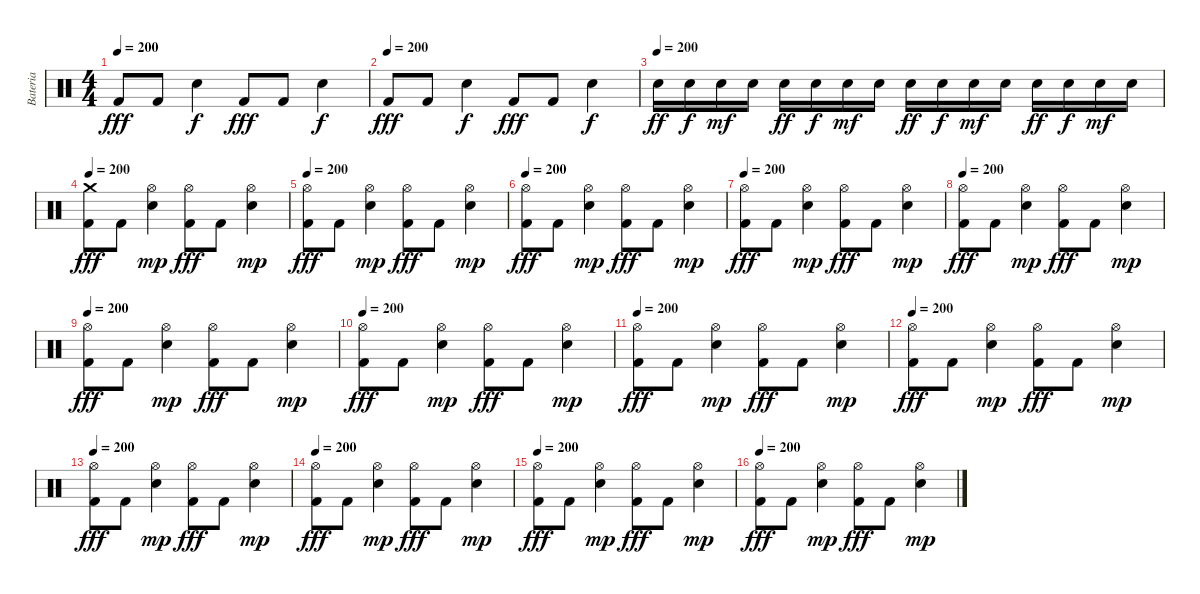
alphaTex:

\track ("Bateria" "Bateria") {instrument percussion}
\staff {score}
\articulation defaults
\ts (4 4)
\tempo 200
\clef neutral
\ks c "Kick (hit) 2".8{dy fff} "Kick (hit) 2".8 "Electric Snare (hit)".4{dy f} "Kick (hit) 2".8{dy fff} "Kick (hit) 2".8 "Electric Snare (hit)".4{dy f}
|
\tempo (200)
"Kick (hit) 2".8{dy fff} "Kick (hit) 2".8 "Electric Snare (hit)".4{dy f} "Kick (hit) 2".8{dy fff} "Kick (hit) 2".8 "Electric Snare (hit)".4{dy f} |
\tempo (200)
"Electric Snare (hit)".16{dy ff} "Electric Snare (hit)".16{dy f} "Electric Snare (hit)".16{dy mf} "Electric Snare (hit)".16 "Electric Snare (hit)".16{dy ff} "Electric Snare (hit)".16{dy f} "Electric Snare (hit)".16{dy mf} "Electric Snare (hit)".16 "Electric Snare (hit)".16{dy ff} "Electric Snare (hit)".16{dy f} "Electric Snare (hit)".16{dy mf} "Electric Snare (hit)".16 "Electric Snare (hit)".16{dy ff} "Electric Snare (hit)".16{dy f} "Electric Snare (hit)".16{dy mf} "Electric Snare (hit)".16 |
\tempo 200
("Crash medium (hit)" "Kick (hit) 2").8{dy fff} "Kick (hit) 2".8 ("Hi-Hat (open)" "Electric Snare (hit)").4{dy mp} ("Hi-Hat (open)" "Kick (hit) 2").8{dy fff} "Kick (hit) 2".8 ("Hi-Hat (open)" "Electric Snare (hit)").4{dy mp} |
\tempo 200
("Hi-Hat (open)" "Kick (hit) 2").8{dy fff} "Kick (hit) 2".8 ("Hi-Hat (open)" "Electric Snare (hit)").4{dy mp} ("Hi-Hat (open)" "Kick (hit) 2").8{dy fff} "Kick (hit) 2".8 ("Hi-Hat (open)" "Electric Snare (hit)").4{dy mp} |
\tempo 200
("Hi-Hat (open)" "Kick (hit) 2").8{dy fff} "Kick (hit) 2".8 ("Hi-Hat (open)" "Electric Snare (hit)").4{dy mp} ("Hi-Hat (open)" "Kick (hit) 2").8{dy fff} "Kick (hit) 2".8 ("Hi-Hat (open)" "Electric Snare (hit)").4{dy mp} |
\tempo 200
("Hi-Hat (open)" "Kick (hit) 2").8{dy fff} "Kick (hit) 2".8 ("Hi-Hat (open)" "Electric Snare (hit)").4{dy mp} ("Hi-Hat (open)" "Kick (hit) 2").8{dy fff} "Kick (hit) 2".8 ("Hi-Hat (open)" "Electric Snare (hit)").4{dy mp} |
\tempo 200
("Hi-Hat (open)" "Kick (hit) 2").8{dy fff} "Kick (hit) 2".8 ("Hi-Hat (open)" "Electric Snare (hit)").4{dy mp} ("Hi-Hat (open)" "Kick (hit) 2").8{dy fff} "Kick (hit) 2".8 ("Hi-Hat (open)" "Electric Snare (hit)").4{dy mp} |
\tempo 200
("Hi-Hat (open)" "Kick (hit) 2").8{dy fff} "Kick (hit) 2".8 ("Hi-Hat (open)" "Electric Snare (hit)").4{dy mp} ("Hi-Hat (open)" "Kick (hit) 2").8{dy fff} "Kick (hit) 2".8 ("Hi-Hat (open)" "Electric Snare (hit)").4{dy mp} |
\tempo 200
("Hi-Hat (open)" "Kick (hit) 2").8{dy fff} "Kick (hit) 2".8 ("Hi-Hat (open)" "Electric Snare (hit)").4{dy mp} ("Hi-Hat (open)" "Kick (hit) 2").8{dy fff} "Kick (hit) 2".8 ("Hi-Hat (open)" "Electric Snare (hit)").4{dy mp} |
\tempo 200
("Hi-Hat (open)" "Kick (hit) 2").8{dy fff} "Kick (hit) 2".8 ("Hi-Hat (open)" "Electric Snare (hit)").4{dy mp} ("Hi-Hat (open)" "Kick (hit) 2").8{dy fff} "Kick (hit) 2".8 ("Hi-Hat (open)" "Electric Snare (hit)").4{dy mp} |
\tempo 200
("Hi-Hat (open)" "Kick (hit) 2").8{dy fff} "Kick (hit) 2".8 ("Hi-Hat (open)" "Electric Snare (hit)").4{dy mp} ("Hi-Hat (open)" "Kick (hit) 2").8{dy fff} "Kick (hit) 2".8 ("Hi-Hat (open)" "Electric Snare (hit)").4{dy mp} |
\tempo 200
("Hi-Hat (open)" "Kick (hit) 2").8{dy fff} "Kick (hit) 2".8 ("Hi-Hat (open)" "Electric Snare (hit)").4{dy mp} ("Hi-Hat (open)" "Kick (hit) 2").8{dy fff} "Kick (hit) 2".8 ("Hi-Hat (open)" "Electric Snare (hit)").4{dy mp} |
\tempo 200
("Hi-Hat (open)" "Kick (hit) 2").8{dy fff} "Kick (hit) 2".8 ("Hi-Hat (open)" "Electric Snare (hit)").4{dy mp} ("Hi-Hat (open)" "Kick (hit) 2").8{dy fff} "Kick (hit) 2".8 ("Hi-Hat (open)" "Electric Snare (hit)").4{dy mp} |
\tempo 200
("Hi-Hat (open)" "Kick (hit) 2").8{dy fff} "Kick (hit) 2".8 ("Hi-Hat (open)" "Electric Snare (hit)").4{dy mp} ("Hi-Hat (open)" "Kick (hit) 2").8{dy fff} "Kick (hit) 2".8 ("Hi-Hat (open)" "Electric Snare (hit)").4{dy mp} |
\tempo 200
("Hi-Hat (open)" "Kick (hit) 2").8{dy fff} "Kick (hit) 2".8 ("Hi-Hat (open)" "Electric Snare (hit)").4{dy mp} ("Hi-Hat (open)" "Kick (hit) 2").8{dy fff} "Kick (hit) 2".8 ("Hi-Hat (open)" "Electric Snare (hit)").4{dy mp}
